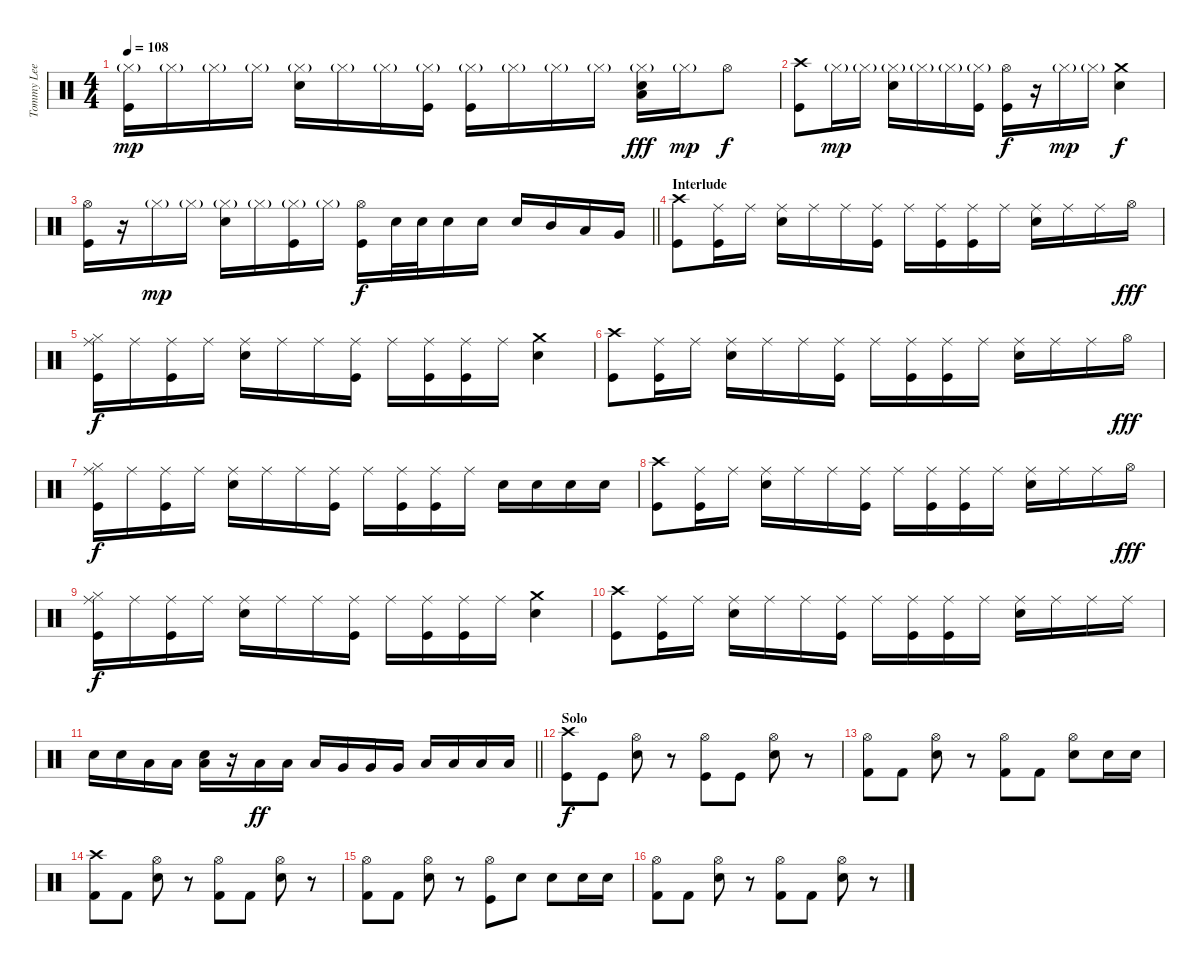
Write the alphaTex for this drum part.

\track ("Tommy Lee" "Tommy Lee") {instrument percussion}
\staff {score}
\articulation defaults
\ts (4 4)
\tempo 108
\clef neutral
\ks c
("Hi-Hat (closed)"{g} "Kick (hit)").16{dy mp} "Hi-Hat (closed)"{g}.16 "Hi-Hat (closed)"{g}.16 "Hi-Hat (closed)"{g}.16 ("Hi-Hat (closed)"{g} "Snare (hit) 2").16 "Hi-Hat (closed)"{g}.16 "Hi-Hat (closed)"{g}.16 ("Hi-Hat (closed)"{g} "Kick (hit)").16 ("Hi-Hat (closed)"{g} "Kick (hit)").16 "Hi-Hat (closed)"{g}.16 "Hi-Hat (closed)"{g}.16 "Hi-Hat (closed)"{g}.16 ("Hi-Hat (closed)"{g} "Low Tom (hit)" "Snare (hit) 2").16{dy fff} "Hi-Hat (closed)"{g}.16{dy mp} "Hi-Hat (open)".8{dy f} |
("Crash high (hit)" "Kick (hit)").8 "Hi-Hat (closed)"{g}.16{dy mp} "Hi-Hat (closed)"{g}.16 ("Hi-Hat (closed)"{g} "Snare (hit) 2").16 "Hi-Hat (closed)"{g}.16 "Hi-Hat (closed)"{g}.16 ("Hi-Hat (closed)"{g} "Kick (hit)").16 ("Hi-Hat (open)" "Kick (hit)").16{dy f} r.16 "Hi-Hat (closed)"{g}.16{dy mp} "Hi-Hat (closed)"{g}.16 ("Crash medium (hit)" "Snare (hit) 2").4{dy f} |
\barLineRight lightlight
("Hi-Hat (open)" "Kick (hit)").16 r.16 "Hi-Hat (closed)"{g}.16{dy mp} "Hi-Hat (closed)"{g}.16 ("Hi-Hat (closed)"{g} "Snare (hit) 2").16 "Hi-Hat (closed)"{g}.16 ("Hi-Hat (closed)"{g} "Kick (hit)").16 "Hi-Hat (closed)"{g}.16 ("Hi-Hat (open)" "Kick (hit)").16{dy f} "Snare (hit) 2".32 "Snare (hit) 2".32 "Snare (hit) 2".16 "Snare (hit) 2".16 "Snare (hit) 2".16 "Mid Tom (hit)".16 "Low Tom (hit)".16 "Very Low Tom (hit)".16 |
\section ("" "Interlude")
("Crash high (hit)" "Kick (hit)").8 ("Ride (middle)" "Kick (hit)").16 "Ride (middle)".16 ("Ride (middle)" "Snare (hit) 2").16 "Ride (middle)".16 "Ride (middle)".16 ("Ride (middle)" "Kick (hit)").16 "Ride (middle)".16 ("Ride (middle)" "Kick (hit)").16 ("Ride (middle)" "Kick (hit)").16 "Ride (middle)".16 ("Ride (middle)" "Snare (hit) 2").16 "Ride (middle)".16 "Ride (middle)".16 "Hi-Hat (open)".16{dy fff} |
("Hi-Hat (closed)" "Ride (middle)" "Kick (hit)").16{dy f} "Ride (middle)".16 ("Ride (middle)" "Kick (hit)").16 "Ride (middle)".16 ("Ride (middle)" "Snare (hit) 2").16 "Ride (middle)".16 "Ride (middle)".16 ("Ride (middle)" "Kick (hit)").16 "Ride (middle)".16 ("Ride (middle)" "Kick (hit)").16 ("Ride (middle)" "Kick (hit)").16 "Ride (middle)".16 ("Crash medium (hit)" "Snare (hit) 2").4 |
("Crash high (hit)" "Kick (hit)").8 ("Ride (middle)" "Kick (hit)").16 "Ride (middle)".16 ("Ride (middle)" "Snare (hit) 2").16 "Ride (middle)".16 "Ride (middle)".16 ("Ride (middle)" "Kick (hit)").16 "Ride (middle)".16 ("Ride (middle)" "Kick (hit)").16 ("Ride (middle)" "Kick (hit)").16 "Ride (middle)".16 ("Ride (middle)" "Snare (hit) 2").16 "Ride (middle)".16 "Ride (middle)".16 "Hi-Hat (open)".16{dy fff} |
("Hi-Hat (closed)" "Ride (middle)" "Kick (hit)").16{dy f} "Ride (middle)".16 ("Ride (middle)" "Kick (hit)").16 "Ride (middle)".16 ("Ride (middle)" "Snare (hit) 2").16 "Ride (middle)".16 "Ride (middle)".16 ("Ride (middle)" "Kick (hit)").16 "Ride (middle)".16 ("Ride (middle)" "Kick (hit)").16 ("Ride (middle)" "Kick (hit)").16 "Ride (middle)".16 "Snare (hit) 2".16 "Snare (hit) 2".16 "Snare (hit) 2".16 "Snare (hit) 2".16 |
("Crash high (hit)" "Kick (hit)").8 ("Ride (middle)" "Kick (hit)").16 "Ride (middle)".16 ("Ride (middle)" "Snare (hit) 2").16 "Ride (middle)".16 "Ride (middle)".16 ("Ride (middle)" "Kick (hit)").16 "Ride (middle)".16 ("Ride (middle)" "Kick (hit)").16 ("Ride (middle)" "Kick (hit)").16 "Ride (middle)".16 ("Ride (middle)" "Snare (hit) 2").16 "Ride (middle)".16 "Ride (middle)".16 "Hi-Hat (open)".16{dy fff} |
("Hi-Hat (closed)" "Ride (middle)" "Kick (hit)").16{dy f} "Ride (middle)".16 ("Ride (middle)" "Kick (hit)").16 "Ride (middle)".16 ("Ride (middle)" "Snare (hit) 2").16 "Ride (middle)".16 "Ride (middle)".16 ("Ride (middle)" "Kick (hit)").16 "Ride (middle)".16 ("Ride (middle)" "Kick (hit)").16 ("Ride (middle)" "Kick (hit)").16 "Ride (middle)".16 ("Crash medium (hit)" "Snare (hit) 2").4 |
("Crash high (hit)" "Kick (hit)").8 ("Ride (middle)" "Kick (hit)").16 "Ride (middle)".16 ("Ride (middle)" "Snare (hit) 2").16 "Ride (middle)".16 "Ride (middle)".16 ("Ride (middle)" "Kick (hit)").16 "Ride (middle)".16 ("Ride (middle)" "Kick (hit)").16 ("Ride (middle)" "Kick (hit)").16 "Ride (middle)".16 ("Ride (middle)" "Snare (hit) 2").16 "Ride (middle)".16 "Ride (middle)".16 "Ride (middle)".16 |
\barLineRight lightlight "Snare (hit) 2".16 "Snare (hit) 2".16 "Low Tom (hit)".16 "Low Tom (hit)".16
("Snare (hit) 2" "Low Tom (hit)").16 r.16 "Low Tom (hit)".16{dy ff} "Low Tom (hit)".16 "Low Tom (hit)".16 "Very Low Tom (hit)".16 "Very Low Tom (hit)".16 "Very Low Tom (hit)".16 "Low Floor Tom (hit)".16 "Low Floor Tom (hit)".16 "Low Floor Tom (hit)".16 "Low Floor Tom (hit)".16 |
\section ("" "Solo")
("Crash high (hit)" "Kick (hit)").8{dy f} "Kick (hit)".8 ("Hi-Hat (open)" "Snare (hit) 2").8 r.8 ("Hi-Hat (open)" "Kick (hit)").8 "Kick (hit)".8 ("Hi-Hat (open)" "Snare (hit) 2").8 r.8 |
("Hi-Hat (open)" "Kick (hit) 2").8 "Kick (hit) 2".8 ("Hi-Hat (open)" "Snare (hit) 2").8 r.8 ("Hi-Hat (open)" "Kick (hit) 2").8 "Kick (hit) 2".8 ("Hi-Hat (open)" "Snare (hit) 2").8 "Snare (hit) 2".16 "Snare (hit) 2".16 |
("Crash high (hit)" "Kick (hit) 2").8 "Kick (hit) 2".8 ("Hi-Hat (open)" "Snare (hit) 2").8 r.8 ("Hi-Hat (open)" "Kick (hit) 2").8 "Kick (hit) 2".8 ("Hi-Hat (open)" "Snare (hit) 2").8 r.8 |
("Hi-Hat (open)" "Kick (hit) 2").8 "Kick (hit) 2".8 ("Hi-Hat (open)" "Snare (hit) 2").8 r.8 ("Hi-Hat (open)" "Kick (hit)").8 "Snare (hit) 2".8 "Snare (hit) 2".8 "Snare (hit) 2".16 "Snare (hit) 2".16 |
("Hi-Hat (open)" "Kick (hit) 2").8 "Kick (hit) 2".8 ("Hi-Hat (open)" "Snare (hit) 2").8 r.8 ("Hi-Hat (open)" "Kick (hit) 2").8 "Kick (hit) 2".8 ("Hi-Hat (open)" "Snare (hit) 2").8 r.8
